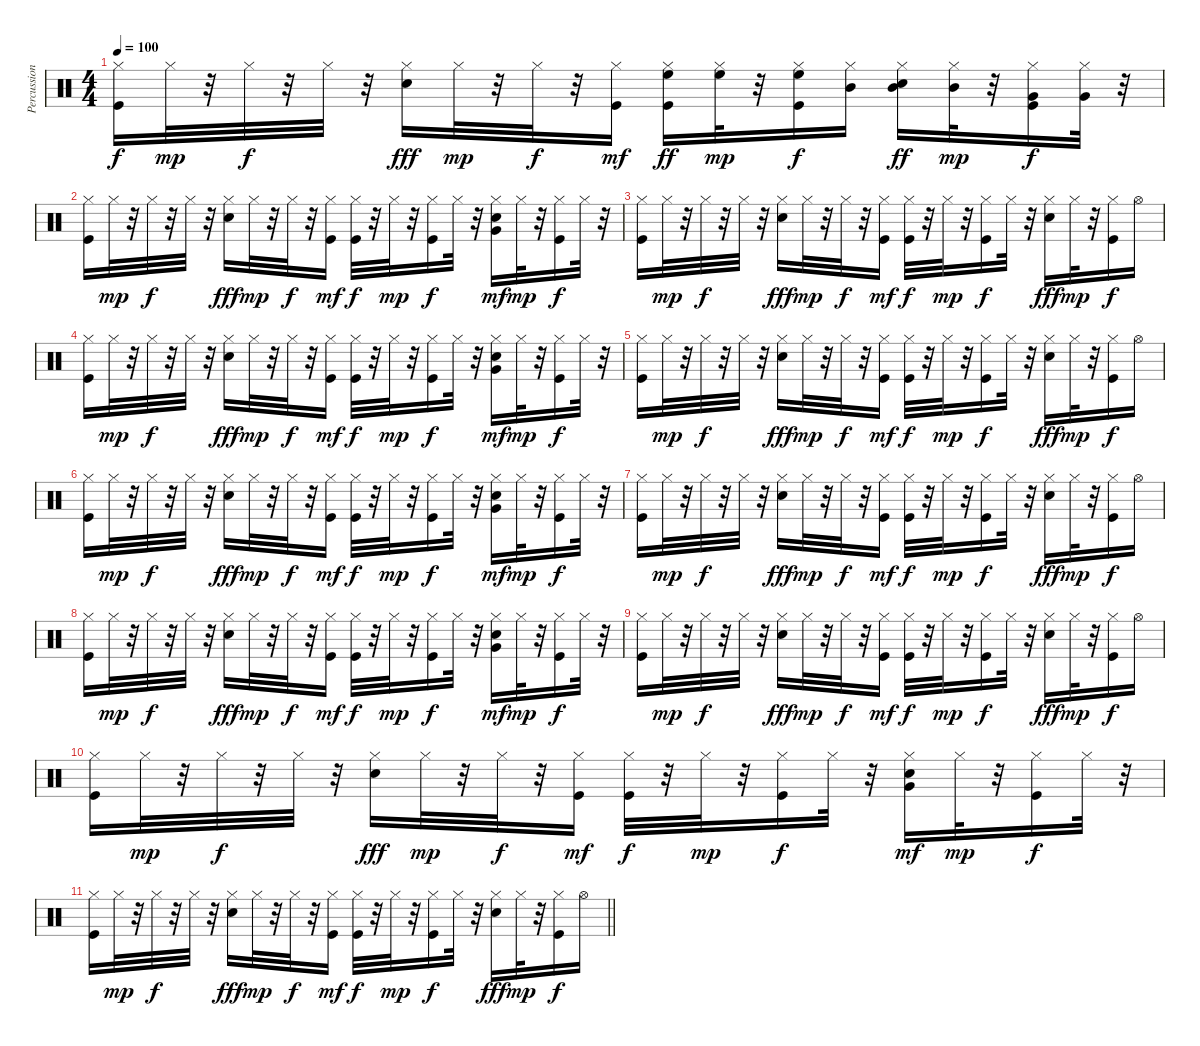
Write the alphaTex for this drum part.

\track ("Percussion" "Percussion") {instrument percussion}
\staff {score}
\articulation defaults
\ts (4 4)
\tempo 100
\clef neutral
\ks c
("Kick (hit)" "Hi-Hat (closed)").16{dy f} "Hi-Hat (closed)".32{dy mp} r.32 "Hi-Hat (closed)".32{dy f} r.32 "Hi-Hat (closed)".32 r.32 ("Electric Snare (hit)" "Hi-Hat (closed)").16{dy fff} "Hi-Hat (closed)".32{dy mp} r.32 "Hi-Hat (closed)".32{dy f} r.32 ("Kick (hit)" "Hi-Hat (closed)").16{dy mf} ("Kick (hit)" "Hi-Hat (closed)" "High Floor Tom (hit)").16{dy ff} ("Hi-Hat (closed)" "High Floor Tom (hit)").32{dy mp} r.32 ("Kick (hit)" "Hi-Hat (closed)" "High Floor Tom (hit)").16{dy f} ("Hi-Hat (closed)" "Mid Tom (hit)").16 ("Electric Snare (hit)" "Hi-Hat (closed)" "Mid Tom (hit)").16{dy ff} ("Hi-Hat (closed)" "Mid Tom (hit)").32{dy mp} r.32 ("Kick (hit)" "Hi-Hat (closed)" "Very Low Tom (hit)").16{dy f} ("Hi-Hat (closed)" "Very Low Tom (hit)").32 r.32 |
("Kick (hit)" "Hi-Hat (closed)").16 "Hi-Hat (closed)".32{dy mp} r.32 "Hi-Hat (closed)".32{dy f} r.32 "Hi-Hat (closed)".32 r.32 ("Electric Snare (hit)" "Hi-Hat (closed)").16{dy fff} "Hi-Hat (closed)".32{dy mp} r.32 "Hi-Hat (closed)".32{dy f} r.32 ("Kick (hit)" "Hi-Hat (closed)").16{dy mf} ("Kick (hit)" "Hi-Hat (closed)").32{dy f} r.32 "Hi-Hat (closed)".32{dy mp} r.32 ("Kick (hit)" "Hi-Hat (closed)").16{dy f} "Hi-Hat (closed)".32 r.32 ("Electric Snare (hit)" "Hi-Hat (closed)" "Very Low Tom (hit)").16{dy mf} "Hi-Hat (closed)".32{dy mp} r.32 ("Kick (hit)" "Hi-Hat (closed)").16{dy f} "Hi-Hat (closed)".32 r.32 |
("Kick (hit)" "Hi-Hat (closed)").16 "Hi-Hat (closed)".32{dy mp} r.32 "Hi-Hat (closed)".32{dy f} r.32 "Hi-Hat (closed)".32 r.32 ("Electric Snare (hit)" "Hi-Hat (closed)").16{dy fff} "Hi-Hat (closed)".32{dy mp} r.32 "Hi-Hat (closed)".32{dy f} r.32 ("Kick (hit)" "Hi-Hat (closed)").16{dy mf} ("Kick (hit)" "Hi-Hat (closed)").32{dy f} r.32 "Hi-Hat (closed)".32{dy mp} r.32 ("Kick (hit)" "Hi-Hat (closed)").16{dy f} "Hi-Hat (closed)".32 r.32 ("Electric Snare (hit)" "Hi-Hat (closed)").16{dy fff} "Hi-Hat (closed)".32{dy mp} r.32 ("Kick (hit)" "Hi-Hat (closed)").16{dy f} "Hi-Hat (open)".16 |
("Kick (hit)" "Hi-Hat (closed)").16 "Hi-Hat (closed)".32{dy mp} r.32 "Hi-Hat (closed)".32{dy f} r.32 "Hi-Hat (closed)".32 r.32 ("Electric Snare (hit)" "Hi-Hat (closed)").16{dy fff} "Hi-Hat (closed)".32{dy mp} r.32 "Hi-Hat (closed)".32{dy f} r.32 ("Kick (hit)" "Hi-Hat (closed)").16{dy mf} ("Kick (hit)" "Hi-Hat (closed)").32{dy f} r.32 "Hi-Hat (closed)".32{dy mp} r.32 ("Kick (hit)" "Hi-Hat (closed)").16{dy f} "Hi-Hat (closed)".32 r.32 ("Electric Snare (hit)" "Hi-Hat (closed)" "Very Low Tom (hit)").16{dy mf} "Hi-Hat (closed)".32{dy mp} r.32 ("Kick (hit)" "Hi-Hat (closed)").16{dy f} "Hi-Hat (closed)".32 r.32 |
("Kick (hit)" "Hi-Hat (closed)").16 "Hi-Hat (closed)".32{dy mp} r.32 "Hi-Hat (closed)".32{dy f} r.32 "Hi-Hat (closed)".32 r.32 ("Electric Snare (hit)" "Hi-Hat (closed)").16{dy fff} "Hi-Hat (closed)".32{dy mp} r.32 "Hi-Hat (closed)".32{dy f} r.32 ("Kick (hit)" "Hi-Hat (closed)").16{dy mf} ("Kick (hit)" "Hi-Hat (closed)").32{dy f} r.32 "Hi-Hat (closed)".32{dy mp} r.32 ("Kick (hit)" "Hi-Hat (closed)").16{dy f} "Hi-Hat (closed)".32 r.32 ("Electric Snare (hit)" "Hi-Hat (closed)").16{dy fff} "Hi-Hat (closed)".32{dy mp} r.32 ("Kick (hit)" "Hi-Hat (closed)").16{dy f} "Hi-Hat (open)".16 |
("Kick (hit)" "Hi-Hat (closed)").16 "Hi-Hat (closed)".32{dy mp} r.32 "Hi-Hat (closed)".32{dy f} r.32 "Hi-Hat (closed)".32 r.32 ("Electric Snare (hit)" "Hi-Hat (closed)").16{dy fff} "Hi-Hat (closed)".32{dy mp} r.32 "Hi-Hat (closed)".32{dy f} r.32 ("Kick (hit)" "Hi-Hat (closed)").16{dy mf} ("Kick (hit)" "Hi-Hat (closed)").32{dy f} r.32 "Hi-Hat (closed)".32{dy mp} r.32 ("Kick (hit)" "Hi-Hat (closed)").16{dy f} "Hi-Hat (closed)".32 r.32 ("Electric Snare (hit)" "Hi-Hat (closed)" "Very Low Tom (hit)").16{dy mf} "Hi-Hat (closed)".32{dy mp} r.32 ("Kick (hit)" "Hi-Hat (closed)").16{dy f} "Hi-Hat (closed)".32 r.32 |
("Kick (hit)" "Hi-Hat (closed)").16 "Hi-Hat (closed)".32{dy mp} r.32 "Hi-Hat (closed)".32{dy f} r.32 "Hi-Hat (closed)".32 r.32 ("Electric Snare (hit)" "Hi-Hat (closed)").16{dy fff} "Hi-Hat (closed)".32{dy mp} r.32 "Hi-Hat (closed)".32{dy f} r.32 ("Kick (hit)" "Hi-Hat (closed)").16{dy mf} ("Kick (hit)" "Hi-Hat (closed)").32{dy f} r.32 "Hi-Hat (closed)".32{dy mp} r.32 ("Kick (hit)" "Hi-Hat (closed)").16{dy f} "Hi-Hat (closed)".32 r.32 ("Electric Snare (hit)" "Hi-Hat (closed)").16{dy fff} "Hi-Hat (closed)".32{dy mp} r.32 ("Kick (hit)" "Hi-Hat (closed)").16{dy f} "Hi-Hat (open)".16 |
("Kick (hit)" "Hi-Hat (closed)").16{volume 0} "Hi-Hat (closed)".32{dy mp volume 8} r.32 "Hi-Hat (closed)".32{dy f} r.32 "Hi-Hat (closed)".32 r.32 ("Electric Snare (hit)" "Hi-Hat (closed)").16{dy fff} "Hi-Hat (closed)".32{dy mp} r.32 "Hi-Hat (closed)".32{dy f} r.32 ("Kick (hit)" "Hi-Hat (closed)").16{dy mf} ("Kick (hit)" "Hi-Hat (closed)").32{dy f} r.32 "Hi-Hat (closed)".32{dy mp} r.32 ("Kick (hit)" "Hi-Hat (closed)").16{dy f} "Hi-Hat (closed)".32 r.32 ("Electric Snare (hit)" "Hi-Hat (closed)" "Very Low Tom (hit)").16{dy mf} "Hi-Hat (closed)".32{dy mp} r.32 ("Kick (hit)" "Hi-Hat (closed)").16{dy f} "Hi-Hat (closed)".32 r.32 |
("Kick (hit)" "Hi-Hat (closed)").16 "Hi-Hat (closed)".32{dy mp} r.32 "Hi-Hat (closed)".32{dy f} r.32 "Hi-Hat (closed)".32 r.32 ("Electric Snare (hit)" "Hi-Hat (closed)").16{dy fff} "Hi-Hat (closed)".32{dy mp} r.32 "Hi-Hat (closed)".32{dy f} r.32 ("Kick (hit)" "Hi-Hat (closed)").16{dy mf} ("Kick (hit)" "Hi-Hat (closed)").32{dy f} r.32 "Hi-Hat (closed)".32{dy mp} r.32 ("Kick (hit)" "Hi-Hat (closed)").16{dy f} "Hi-Hat (closed)".32 r.32 ("Electric Snare (hit)" "Hi-Hat (closed)").16{dy fff} "Hi-Hat (closed)".32{dy mp} r.32 ("Kick (hit)" "Hi-Hat (closed)").16{dy f} "Hi-Hat (open)".16 |
("Kick (hit)" "Hi-Hat (closed)").16 "Hi-Hat (closed)".32{dy mp} r.32 "Hi-Hat (closed)".32{dy f} r.32 "Hi-Hat (closed)".32 r.32 ("Electric Snare (hit)" "Hi-Hat (closed)").16{dy fff} "Hi-Hat (closed)".32{dy mp} r.32 "Hi-Hat (closed)".32{dy f} r.32 ("Kick (hit)" "Hi-Hat (closed)").16{dy mf} ("Kick (hit)" "Hi-Hat (closed)").32{dy f} r.32 "Hi-Hat (closed)".32{dy mp} r.32 ("Kick (hit)" "Hi-Hat (closed)").16{dy f} "Hi-Hat (closed)".32 r.32 ("Electric Snare (hit)" "Hi-Hat (closed)" "Very Low Tom (hit)").16{dy mf} "Hi-Hat (closed)".32{dy mp} r.32 ("Kick (hit)" "Hi-Hat (closed)").16{dy f} "Hi-Hat (closed)".32 r.32 |
\barLineRight lightlight
("Kick (hit)" "Hi-Hat (closed)").16 "Hi-Hat (closed)".32{dy mp} r.32 "Hi-Hat (closed)".32{dy f} r.32 "Hi-Hat (closed)".32 r.32 ("Electric Snare (hit)" "Hi-Hat (closed)").16{dy fff} "Hi-Hat (closed)".32{dy mp} r.32 "Hi-Hat (closed)".32{dy f} r.32 ("Kick (hit)" "Hi-Hat (closed)").16{dy mf} ("Kick (hit)" "Hi-Hat (closed)").32{dy f} r.32 "Hi-Hat (closed)".32{dy mp} r.32 ("Kick (hit)" "Hi-Hat (closed)").16{dy f} "Hi-Hat (closed)".32 r.32 ("Electric Snare (hit)" "Hi-Hat (closed)").16{dy fff} "Hi-Hat (closed)".32{dy mp} r.32 ("Kick (hit)" "Hi-Hat (closed)").16{dy f} "Hi-Hat (open)".16
